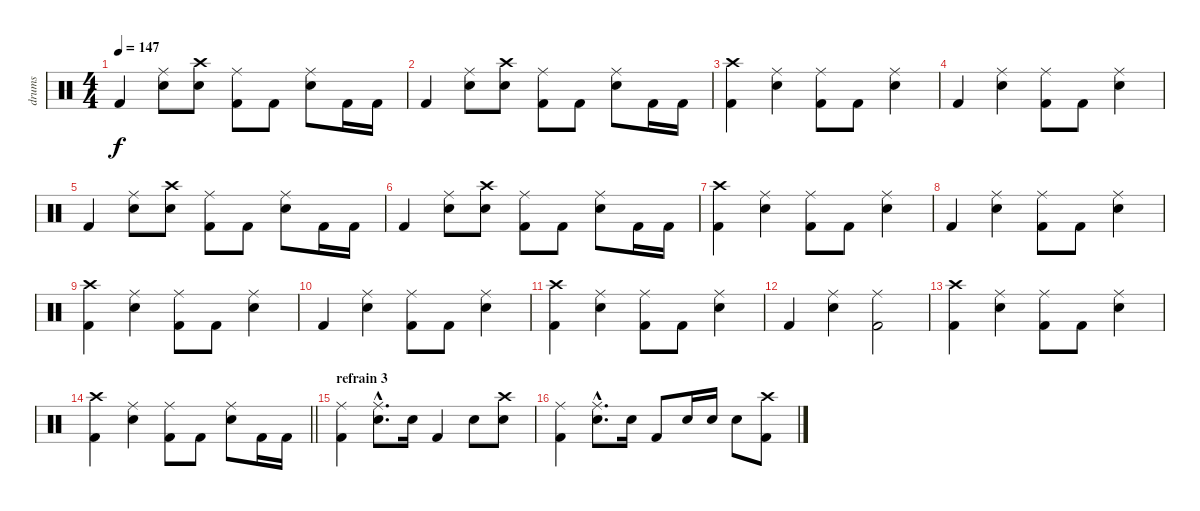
\track ("drums" "drums") {instrument percussion}
\staff {score}
\articulation defaults
\ts (4 4)
\tempo 147
\clef neutral
\ks c "Kick (hit) 2".4{dy f}
("Ride (middle)" "Snare (hit) 2").8 ("Crash high (hit)" "Snare (hit) 2").8 ("Ride (middle)" "Kick (hit) 2").8 "Kick (hit) 2".8 ("Ride (middle)" "Snare (hit) 2").8 "Kick (hit) 2".16 "Kick (hit) 2".16 |
"Kick (hit) 2".4 ("Ride (middle)" "Snare (hit) 2").8 ("Crash high (hit)" "Snare (hit) 2").8 ("Ride (middle)" "Kick (hit) 2").8 "Kick (hit) 2".8 ("Ride (middle)" "Snare (hit) 2").8 "Kick (hit) 2".16 "Kick (hit) 2".16 |
("Crash high (hit)" "Kick (hit) 2").4 ("Ride (middle)" "Snare (hit) 2").4 ("Ride (middle)" "Kick (hit) 2").8 "Kick (hit) 2".8 ("Ride (middle)" "Snare (hit) 2").4 |
"Kick (hit) 2".4 ("Ride (middle)" "Snare (hit) 2").4 ("Ride (middle)" "Kick (hit) 2").8 "Kick (hit) 2".8 ("Ride (middle)" "Snare (hit) 2").4 |
"Kick (hit) 2".4 ("Ride (middle)" "Snare (hit) 2").8 ("Crash high (hit)" "Snare (hit) 2").8 ("Ride (middle)" "Kick (hit) 2").8 "Kick (hit) 2".8 ("Ride (middle)" "Snare (hit) 2").8 "Kick (hit) 2".16 "Kick (hit) 2".16 |
"Kick (hit) 2".4 ("Ride (middle)" "Snare (hit) 2").8 ("Crash high (hit)" "Snare (hit) 2").8 ("Ride (middle)" "Kick (hit) 2").8 "Kick (hit) 2".8 ("Ride (middle)" "Snare (hit) 2").8 "Kick (hit) 2".16 "Kick (hit) 2".16 |
("Crash high (hit)" "Kick (hit) 2").4 ("Ride (middle)" "Snare (hit) 2").4 ("Ride (middle)" "Kick (hit) 2").8 "Kick (hit) 2".8 ("Ride (middle)" "Snare (hit) 2").4 |
"Kick (hit) 2".4 ("Ride (middle)" "Snare (hit) 2").4 ("Ride (middle)" "Kick (hit) 2").8 "Kick (hit) 2".8 ("Ride (middle)" "Snare (hit) 2").4 |
("Crash high (hit)" "Kick (hit) 2").4 ("Ride (middle)" "Snare (hit) 2").4 ("Ride (middle)" "Kick (hit) 2").8 "Kick (hit) 2".8 ("Ride (middle)" "Snare (hit) 2").4 |
"Kick (hit) 2".4 ("Ride (middle)" "Snare (hit) 2").4 ("Ride (middle)" "Kick (hit) 2").8 "Kick (hit) 2".8 ("Ride (middle)" "Snare (hit) 2").4 |
("Crash high (hit)" "Kick (hit) 2").4 ("Ride (middle)" "Snare (hit) 2").4 ("Ride (middle)" "Kick (hit) 2").8 "Kick (hit) 2".8 ("Ride (middle)" "Snare (hit) 2").4 |
"Kick (hit) 2".4 ("Ride (middle)" "Snare (hit) 2").4 ("Ride (middle)" "Kick (hit) 2").2 |
("Crash high (hit)" "Kick (hit) 2").4 ("Ride (middle)" "Snare (hit) 2").4 ("Ride (middle)" "Kick (hit) 2").8 "Kick (hit) 2".8 ("Ride (middle)" "Snare (hit) 2").4 |
\barLineRight lightlight
("Crash high (hit)" "Kick (hit) 2").4 ("Ride (middle)" "Snare (hit) 2").4 ("Ride (middle)" "Kick (hit) 2").8 "Kick (hit) 2".8 ("Ride (middle)" "Snare (hit) 2").8 "Kick (hit) 2".16 "Kick (hit) 2".16 |
\section ("" "refrain 3")
("Ride (middle)" "Kick (hit) 2").4 ("Ride (middle)"{hac} "Snare (hit) 2"{hac}).8{d} "Snare (hit) 2".16 "Kick (hit) 2".4 "Snare (hit) 2".8 ("Crash high (hit)" "Snare (hit) 2").8 |
("Ride (middle)" "Kick (hit) 2").4 ("Ride (middle)"{hac} "Snare (hit) 2"{hac}).8{d} "Snare (hit) 2".16 "Kick (hit) 2".8 "Snare (hit) 2".16 "Snare (hit) 2".16 "Snare (hit) 2".8 ("Crash high (hit)" "Kick (hit) 2").8
